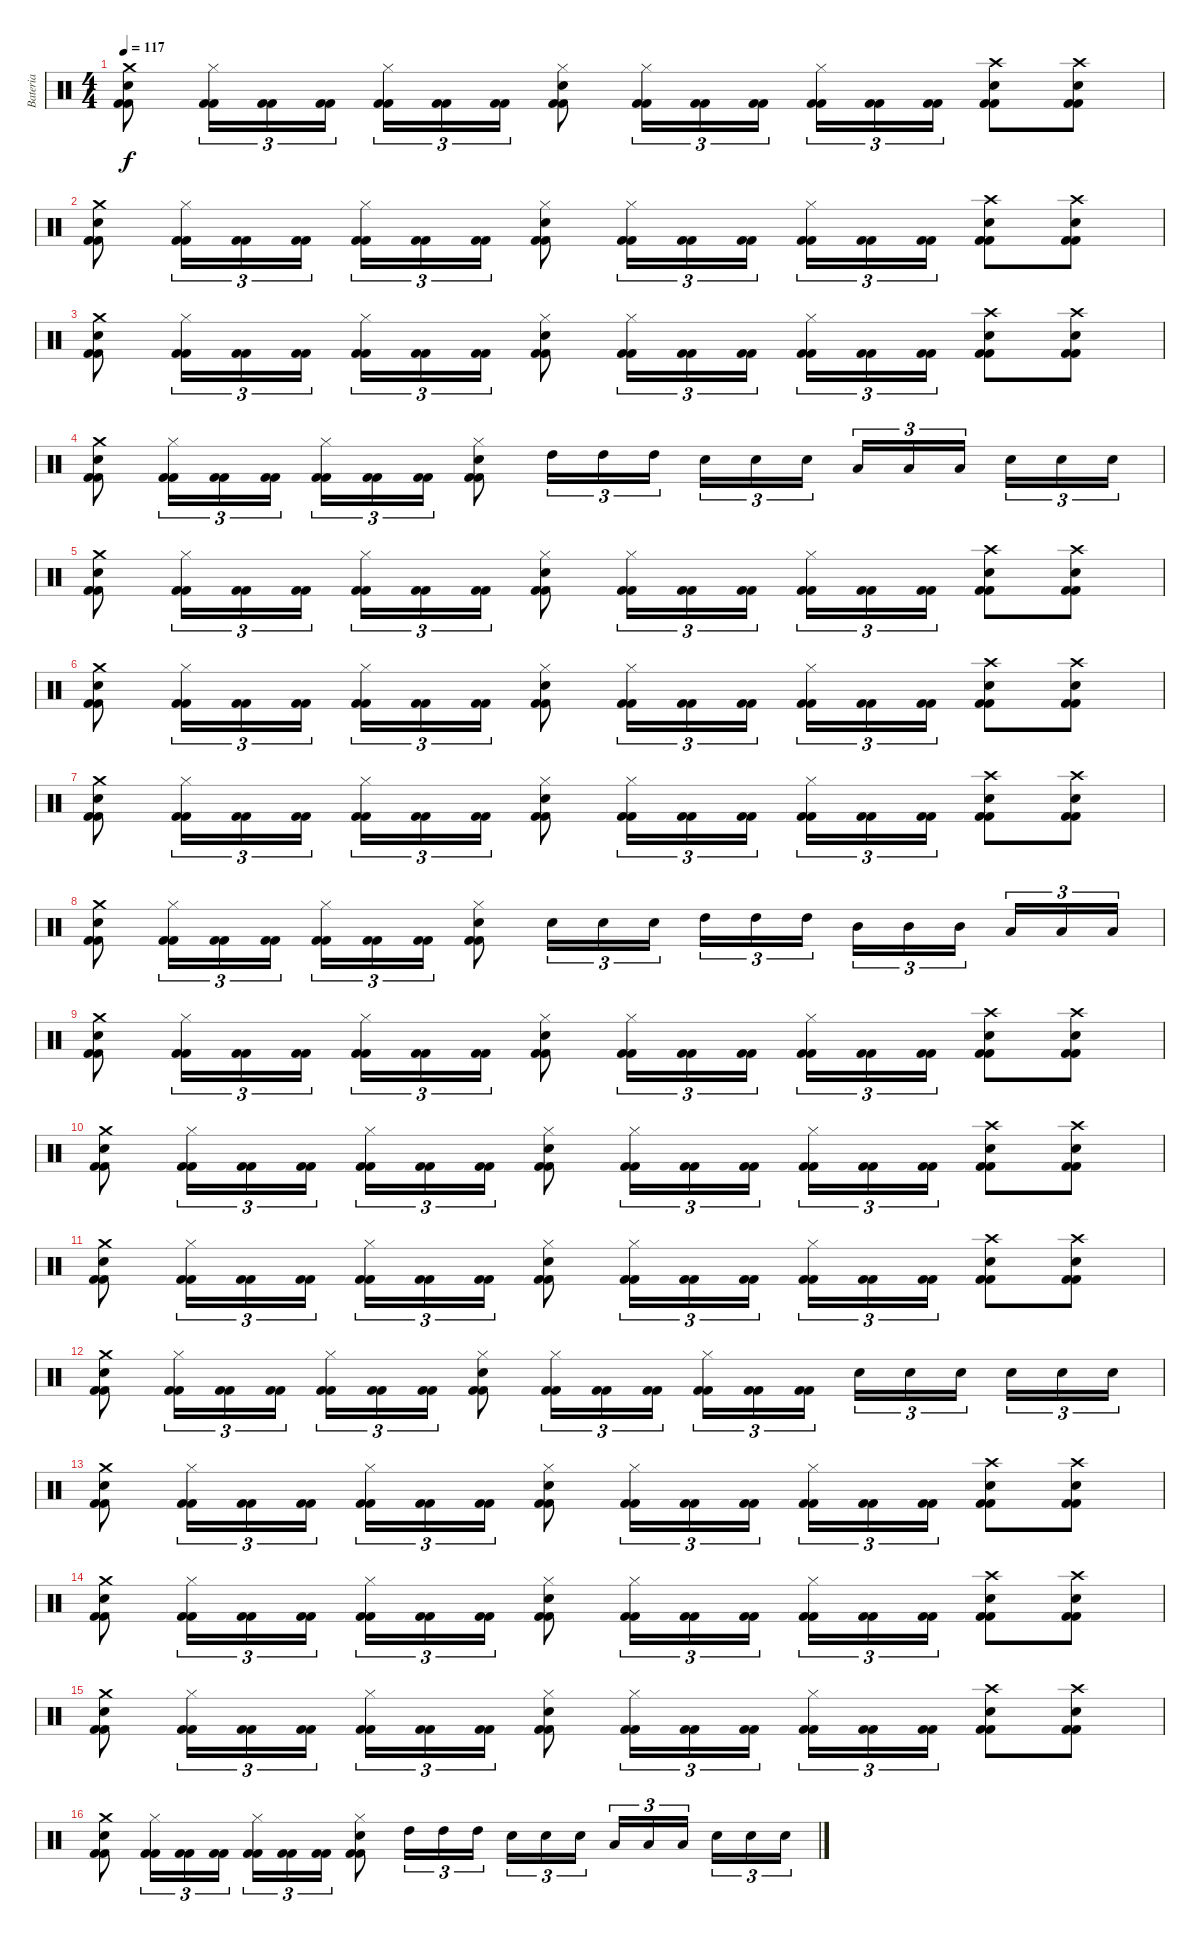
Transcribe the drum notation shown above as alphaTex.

\track ("Bateria" "Bateria") {instrument percussion}
\staff {score}
\articulation defaults
\ts (4 4)
\tempo 117
\clef neutral
\ks c
("Kick (hit) 2" "Kick (hit) 2" "Snare (hit) 2" "Crash medium (hit)").8{dy f} ("Kick (hit) 2" "Kick (hit) 2" "Hi-Hat (closed)").16{tu (3 2)} ("Kick (hit) 2" "Kick (hit) 2").16{tu (3 2)} ("Kick (hit) 2" "Kick (hit) 2").16{tu (3 2)} ("Kick (hit) 2" "Kick (hit) 2" "Hi-Hat (closed)").16{tu (3 2)} ("Kick (hit) 2" "Kick (hit) 2").16{tu (3 2)} ("Kick (hit) 2" "Kick (hit) 2").16{tu (3 2)} ("Kick (hit) 2" "Kick (hit) 2" "Snare (hit) 2" "Hi-Hat (closed)").8 ("Kick (hit) 2" "Kick (hit) 2" "Hi-Hat (closed)").16{tu (3 2)} ("Kick (hit) 2" "Kick (hit) 2").16{tu (3 2)} ("Kick (hit) 2" "Kick (hit) 2").16{tu (3 2)} ("Kick (hit) 2" "Kick (hit) 2" "Hi-Hat (closed)").16{tu (3 2)} ("Kick (hit) 2" "Kick (hit) 2").16{tu (3 2)} ("Kick (hit) 2" "Kick (hit) 2").16{tu (3 2)} ("Kick (hit) 2" "Kick (hit) 2" "Snare (hit) 2" "Crash high (hit)").8 ("Kick (hit) 2" "Kick (hit) 2" "Snare (hit) 2" "Crash high (hit)").8 |
("Kick (hit) 2" "Kick (hit) 2" "Snare (hit) 2" "Crash medium (hit)").8 ("Kick (hit) 2" "Kick (hit) 2" "Hi-Hat (closed)").16{tu (3 2)} ("Kick (hit) 2" "Kick (hit) 2").16{tu (3 2)} ("Kick (hit) 2" "Kick (hit) 2").16{tu (3 2)} ("Kick (hit) 2" "Kick (hit) 2" "Hi-Hat (closed)").16{tu (3 2)} ("Kick (hit) 2" "Kick (hit) 2").16{tu (3 2)} ("Kick (hit) 2" "Kick (hit) 2").16{tu (3 2)} ("Kick (hit) 2" "Kick (hit) 2" "Snare (hit) 2" "Hi-Hat (closed)").8 ("Kick (hit) 2" "Kick (hit) 2" "Hi-Hat (closed)").16{tu (3 2)} ("Kick (hit) 2" "Kick (hit) 2").16{tu (3 2)} ("Kick (hit) 2" "Kick (hit) 2").16{tu (3 2)} ("Kick (hit) 2" "Kick (hit) 2" "Hi-Hat (closed)").16{tu (3 2)} ("Kick (hit) 2" "Kick (hit) 2").16{tu (3 2)} ("Kick (hit) 2" "Kick (hit) 2").16{tu (3 2)} ("Kick (hit) 2" "Kick (hit) 2" "Snare (hit) 2" "Crash high (hit)").8 ("Kick (hit) 2" "Kick (hit) 2" "Snare (hit) 2" "Crash high (hit)").8 |
("Kick (hit) 2" "Kick (hit) 2" "Snare (hit) 2" "Crash medium (hit)").8 ("Kick (hit) 2" "Kick (hit) 2" "Hi-Hat (closed)").16{tu (3 2)} ("Kick (hit) 2" "Kick (hit) 2").16{tu (3 2)} ("Kick (hit) 2" "Kick (hit) 2").16{tu (3 2)} ("Kick (hit) 2" "Kick (hit) 2" "Hi-Hat (closed)").16{tu (3 2)} ("Kick (hit) 2" "Kick (hit) 2").16{tu (3 2)} ("Kick (hit) 2" "Kick (hit) 2").16{tu (3 2)} ("Kick (hit) 2" "Kick (hit) 2" "Snare (hit) 2" "Hi-Hat (closed)").8 ("Kick (hit) 2" "Kick (hit) 2" "Hi-Hat (closed)").16{tu (3 2)} ("Kick (hit) 2" "Kick (hit) 2").16{tu (3 2)} ("Kick (hit) 2" "Kick (hit) 2").16{tu (3 2)} ("Kick (hit) 2" "Kick (hit) 2" "Hi-Hat (closed)").16{tu (3 2)} ("Kick (hit) 2" "Kick (hit) 2").16{tu (3 2)} ("Kick (hit) 2" "Kick (hit) 2").16{tu (3 2)} ("Kick (hit) 2" "Kick (hit) 2" "Snare (hit) 2" "Crash high (hit)").8 ("Kick (hit) 2" "Kick (hit) 2" "Snare (hit) 2" "Crash high (hit)").8 |
("Kick (hit) 2" "Kick (hit) 2" "Snare (hit) 2" "Crash medium (hit)").8 ("Kick (hit) 2" "Kick (hit) 2" "Hi-Hat (closed)").16{tu (3 2)} ("Kick (hit) 2" "Kick (hit) 2").16{tu (3 2)} ("Kick (hit) 2" "Kick (hit) 2").16{tu (3 2)} ("Kick (hit) 2" "Kick (hit) 2" "Hi-Hat (closed)").16{tu (3 2)} ("Kick (hit) 2" "Kick (hit) 2").16{tu (3 2)} ("Kick (hit) 2" "Kick (hit) 2").16{tu (3 2)} ("Kick (hit) 2" "Kick (hit) 2" "Snare (hit) 2" "Hi-Hat (closed)").8 "High Tom (hit)".16{tu (3 2)} "High Tom (hit)".16{tu (3 2)} "High Tom (hit)".16{tu (3 2)} "Snare (hit) 2".16{tu (3 2)} "Snare (hit) 2".16{tu (3 2)} "Snare (hit) 2".16{tu (3 2)} "Low Tom (hit)".16{tu (3 2)} "Low Tom (hit)".16{tu (3 2)} "Low Tom (hit)".16{tu (3 2)} "Snare (hit) 2".16{tu (3 2)} "Snare (hit) 2".16{tu (3 2)} "Snare (hit) 2".16{tu (3 2)} |
("Kick (hit) 2" "Kick (hit) 2" "Snare (hit) 2" "Crash medium (hit)").8 ("Kick (hit) 2" "Kick (hit) 2" "Hi-Hat (closed)").16{tu (3 2)} ("Kick (hit) 2" "Kick (hit) 2").16{tu (3 2)} ("Kick (hit) 2" "Kick (hit) 2").16{tu (3 2)} ("Kick (hit) 2" "Kick (hit) 2" "Hi-Hat (closed)").16{tu (3 2)} ("Kick (hit) 2" "Kick (hit) 2").16{tu (3 2)} ("Kick (hit) 2" "Kick (hit) 2").16{tu (3 2)} ("Kick (hit) 2" "Kick (hit) 2" "Snare (hit) 2" "Hi-Hat (closed)").8 ("Kick (hit) 2" "Kick (hit) 2" "Hi-Hat (closed)").16{tu (3 2)} ("Kick (hit) 2" "Kick (hit) 2").16{tu (3 2)} ("Kick (hit) 2" "Kick (hit) 2").16{tu (3 2)} ("Kick (hit) 2" "Kick (hit) 2" "Hi-Hat (closed)").16{tu (3 2)} ("Kick (hit) 2" "Kick (hit) 2").16{tu (3 2)} ("Kick (hit) 2" "Kick (hit) 2").16{tu (3 2)} ("Kick (hit) 2" "Kick (hit) 2" "Snare (hit) 2" "Crash high (hit)").8 ("Kick (hit) 2" "Kick (hit) 2" "Snare (hit) 2" "Crash high (hit)").8 |
("Kick (hit) 2" "Kick (hit) 2" "Snare (hit) 2" "Crash medium (hit)").8 ("Kick (hit) 2" "Kick (hit) 2" "Hi-Hat (closed)").16{tu (3 2)} ("Kick (hit) 2" "Kick (hit) 2").16{tu (3 2)} ("Kick (hit) 2" "Kick (hit) 2").16{tu (3 2)} ("Kick (hit) 2" "Kick (hit) 2" "Hi-Hat (closed)").16{tu (3 2)} ("Kick (hit) 2" "Kick (hit) 2").16{tu (3 2)} ("Kick (hit) 2" "Kick (hit) 2").16{tu (3 2)} ("Kick (hit) 2" "Kick (hit) 2" "Snare (hit) 2" "Hi-Hat (closed)").8 ("Kick (hit) 2" "Kick (hit) 2" "Hi-Hat (closed)").16{tu (3 2)} ("Kick (hit) 2" "Kick (hit) 2").16{tu (3 2)} ("Kick (hit) 2" "Kick (hit) 2").16{tu (3 2)} ("Kick (hit) 2" "Kick (hit) 2" "Hi-Hat (closed)").16{tu (3 2)} ("Kick (hit) 2" "Kick (hit) 2").16{tu (3 2)} ("Kick (hit) 2" "Kick (hit) 2").16{tu (3 2)} ("Kick (hit) 2" "Kick (hit) 2" "Snare (hit) 2" "Crash high (hit)").8 ("Kick (hit) 2" "Kick (hit) 2" "Snare (hit) 2" "Crash high (hit)").8 |
("Kick (hit) 2" "Kick (hit) 2" "Snare (hit) 2" "Crash medium (hit)").8 ("Kick (hit) 2" "Kick (hit) 2" "Hi-Hat (closed)").16{tu (3 2)} ("Kick (hit) 2" "Kick (hit) 2").16{tu (3 2)} ("Kick (hit) 2" "Kick (hit) 2").16{tu (3 2)} ("Kick (hit) 2" "Kick (hit) 2" "Hi-Hat (closed)").16{tu (3 2)} ("Kick (hit) 2" "Kick (hit) 2").16{tu (3 2)} ("Kick (hit) 2" "Kick (hit) 2").16{tu (3 2)} ("Kick (hit) 2" "Kick (hit) 2" "Snare (hit) 2" "Hi-Hat (closed)").8 ("Kick (hit) 2" "Kick (hit) 2" "Hi-Hat (closed)").16{tu (3 2)} ("Kick (hit) 2" "Kick (hit) 2").16{tu (3 2)} ("Kick (hit) 2" "Kick (hit) 2").16{tu (3 2)} ("Kick (hit) 2" "Kick (hit) 2" "Hi-Hat (closed)").16{tu (3 2)} ("Kick (hit) 2" "Kick (hit) 2").16{tu (3 2)} ("Kick (hit) 2" "Kick (hit) 2").16{tu (3 2)} ("Kick (hit) 2" "Kick (hit) 2" "Snare (hit) 2" "Crash high (hit)").8 ("Kick (hit) 2" "Kick (hit) 2" "Snare (hit) 2" "Crash high (hit)").8 |
("Kick (hit) 2" "Kick (hit) 2" "Snare (hit) 2" "Crash medium (hit)").8 ("Kick (hit) 2" "Kick (hit) 2" "Hi-Hat (closed)").16{tu (3 2)} ("Kick (hit) 2" "Kick (hit) 2").16{tu (3 2)} ("Kick (hit) 2" "Kick (hit) 2").16{tu (3 2)} ("Kick (hit) 2" "Kick (hit) 2" "Hi-Hat (closed)").16{tu (3 2)} ("Kick (hit) 2" "Kick (hit) 2").16{tu (3 2)} ("Kick (hit) 2" "Kick (hit) 2").16{tu (3 2)} ("Kick (hit) 2" "Kick (hit) 2" "Snare (hit) 2" "Hi-Hat (closed)").8 "Snare (hit) 2".16{tu (3 2)} "Snare (hit) 2".16{tu (3 2)} "Snare (hit) 2".16{tu (3 2)} "High Tom (hit)".16{tu (3 2)} "High Tom (hit)".16{tu (3 2)} "High Tom (hit)".16{tu (3 2)} "Mid Tom (hit)".16{tu (3 2)} "Mid Tom (hit)".16{tu (3 2)} "Mid Tom (hit)".16{tu (3 2)} "Low Tom (hit)".16{tu (3 2)} "Low Tom (hit)".16{tu (3 2)} "Low Tom (hit)".16{tu (3 2)} |
("Kick (hit) 2" "Kick (hit) 2" "Snare (hit) 2" "Crash medium (hit)").8 ("Kick (hit) 2" "Kick (hit) 2" "Hi-Hat (closed)").16{tu (3 2)} ("Kick (hit) 2" "Kick (hit) 2").16{tu (3 2)} ("Kick (hit) 2" "Kick (hit) 2").16{tu (3 2)} ("Kick (hit) 2" "Kick (hit) 2" "Hi-Hat (closed)").16{tu (3 2)} ("Kick (hit) 2" "Kick (hit) 2").16{tu (3 2)} ("Kick (hit) 2" "Kick (hit) 2").16{tu (3 2)} ("Kick (hit) 2" "Kick (hit) 2" "Snare (hit) 2" "Hi-Hat (closed)").8 ("Kick (hit) 2" "Kick (hit) 2" "Hi-Hat (closed)").16{tu (3 2)} ("Kick (hit) 2" "Kick (hit) 2").16{tu (3 2)} ("Kick (hit) 2" "Kick (hit) 2").16{tu (3 2)} ("Kick (hit) 2" "Kick (hit) 2" "Hi-Hat (closed)").16{tu (3 2)} ("Kick (hit) 2" "Kick (hit) 2").16{tu (3 2)} ("Kick (hit) 2" "Kick (hit) 2").16{tu (3 2)} ("Kick (hit) 2" "Kick (hit) 2" "Snare (hit) 2" "Crash high (hit)").8 ("Kick (hit) 2" "Kick (hit) 2" "Snare (hit) 2" "Crash high (hit)").8 |
("Kick (hit) 2" "Kick (hit) 2" "Snare (hit) 2" "Crash medium (hit)").8 ("Kick (hit) 2" "Kick (hit) 2" "Hi-Hat (closed)").16{tu (3 2)} ("Kick (hit) 2" "Kick (hit) 2").16{tu (3 2)} ("Kick (hit) 2" "Kick (hit) 2").16{tu (3 2)} ("Kick (hit) 2" "Kick (hit) 2" "Hi-Hat (closed)").16{tu (3 2)} ("Kick (hit) 2" "Kick (hit) 2").16{tu (3 2)} ("Kick (hit) 2" "Kick (hit) 2").16{tu (3 2)} ("Kick (hit) 2" "Kick (hit) 2" "Snare (hit) 2" "Hi-Hat (closed)").8 ("Kick (hit) 2" "Kick (hit) 2" "Hi-Hat (closed)").16{tu (3 2)} ("Kick (hit) 2" "Kick (hit) 2").16{tu (3 2)} ("Kick (hit) 2" "Kick (hit) 2").16{tu (3 2)} ("Kick (hit) 2" "Kick (hit) 2" "Hi-Hat (closed)").16{tu (3 2)} ("Kick (hit) 2" "Kick (hit) 2").16{tu (3 2)} ("Kick (hit) 2" "Kick (hit) 2").16{tu (3 2)} ("Kick (hit) 2" "Kick (hit) 2" "Snare (hit) 2" "Crash high (hit)").8 ("Kick (hit) 2" "Kick (hit) 2" "Snare (hit) 2" "Crash high (hit)").8 |
("Kick (hit) 2" "Kick (hit) 2" "Snare (hit) 2" "Crash medium (hit)").8 ("Kick (hit) 2" "Kick (hit) 2" "Hi-Hat (closed)").16{tu (3 2)} ("Kick (hit) 2" "Kick (hit) 2").16{tu (3 2)} ("Kick (hit) 2" "Kick (hit) 2").16{tu (3 2)} ("Kick (hit) 2" "Kick (hit) 2" "Hi-Hat (closed)").16{tu (3 2)} ("Kick (hit) 2" "Kick (hit) 2").16{tu (3 2)} ("Kick (hit) 2" "Kick (hit) 2").16{tu (3 2)} ("Kick (hit) 2" "Kick (hit) 2" "Snare (hit) 2" "Hi-Hat (closed)").8 ("Kick (hit) 2" "Kick (hit) 2" "Hi-Hat (closed)").16{tu (3 2)} ("Kick (hit) 2" "Kick (hit) 2").16{tu (3 2)} ("Kick (hit) 2" "Kick (hit) 2").16{tu (3 2)} ("Kick (hit) 2" "Kick (hit) 2" "Hi-Hat (closed)").16{tu (3 2)} ("Kick (hit) 2" "Kick (hit) 2").16{tu (3 2)} ("Kick (hit) 2" "Kick (hit) 2").16{tu (3 2)} ("Kick (hit) 2" "Kick (hit) 2" "Snare (hit) 2" "Crash high (hit)").8 ("Kick (hit) 2" "Kick (hit) 2" "Snare (hit) 2" "Crash high (hit)").8 |
("Kick (hit) 2" "Kick (hit) 2" "Snare (hit) 2" "Crash medium (hit)").8 ("Kick (hit) 2" "Kick (hit) 2" "Hi-Hat (closed)").16{tu (3 2)} ("Kick (hit) 2" "Kick (hit) 2").16{tu (3 2)} ("Kick (hit) 2" "Kick (hit) 2").16{tu (3 2)} ("Kick (hit) 2" "Kick (hit) 2" "Hi-Hat (closed)").16{tu (3 2)} ("Kick (hit) 2" "Kick (hit) 2").16{tu (3 2)} ("Kick (hit) 2" "Kick (hit) 2").16{tu (3 2)} ("Kick (hit) 2" "Kick (hit) 2" "Snare (hit) 2" "Hi-Hat (closed)").8 ("Kick (hit) 2" "Kick (hit) 2" "Hi-Hat (closed)").16{tu (3 2)} ("Kick (hit) 2" "Kick (hit) 2").16{tu (3 2)} ("Kick (hit) 2" "Kick (hit) 2").16{tu (3 2)} ("Kick (hit) 2" "Kick (hit) 2" "Hi-Hat (closed)").16{tu (3 2)} ("Kick (hit) 2" "Kick (hit) 2").16{tu (3 2)} ("Kick (hit) 2" "Kick (hit) 2").16{tu (3 2)} "Snare (hit) 2".16{tu (3 2)} "Snare (hit) 2".16{tu (3 2)} "Snare (hit) 2".16{tu (3 2)} "Snare (hit) 2".16{tu (3 2)} "Snare (hit) 2".16{tu (3 2)} "Snare (hit) 2".16{tu (3 2)} |
("Kick (hit) 2" "Kick (hit) 2" "Snare (hit) 2" "Crash medium (hit)").8 ("Kick (hit) 2" "Kick (hit) 2" "Hi-Hat (closed)").16{tu (3 2)} ("Kick (hit) 2" "Kick (hit) 2").16{tu (3 2)} ("Kick (hit) 2" "Kick (hit) 2").16{tu (3 2)} ("Kick (hit) 2" "Kick (hit) 2" "Hi-Hat (closed)").16{tu (3 2)} ("Kick (hit) 2" "Kick (hit) 2").16{tu (3 2)} ("Kick (hit) 2" "Kick (hit) 2").16{tu (3 2)} ("Kick (hit) 2" "Kick (hit) 2" "Snare (hit) 2" "Hi-Hat (closed)").8 ("Kick (hit) 2" "Kick (hit) 2" "Hi-Hat (closed)").16{tu (3 2)} ("Kick (hit) 2" "Kick (hit) 2").16{tu (3 2)} ("Kick (hit) 2" "Kick (hit) 2").16{tu (3 2)} ("Kick (hit) 2" "Kick (hit) 2" "Hi-Hat (closed)").16{tu (3 2)} ("Kick (hit) 2" "Kick (hit) 2").16{tu (3 2)} ("Kick (hit) 2" "Kick (hit) 2").16{tu (3 2)} ("Kick (hit) 2" "Kick (hit) 2" "Snare (hit) 2" "Crash high (hit)").8 ("Kick (hit) 2" "Kick (hit) 2" "Snare (hit) 2" "Crash high (hit)").8 |
("Kick (hit) 2" "Kick (hit) 2" "Snare (hit) 2" "Crash medium (hit)").8 ("Kick (hit) 2" "Kick (hit) 2" "Hi-Hat (closed)").16{tu (3 2)} ("Kick (hit) 2" "Kick (hit) 2").16{tu (3 2)} ("Kick (hit) 2" "Kick (hit) 2").16{tu (3 2)} ("Kick (hit) 2" "Kick (hit) 2" "Hi-Hat (closed)").16{tu (3 2)} ("Kick (hit) 2" "Kick (hit) 2").16{tu (3 2)} ("Kick (hit) 2" "Kick (hit) 2").16{tu (3 2)} ("Kick (hit) 2" "Kick (hit) 2" "Snare (hit) 2" "Hi-Hat (closed)").8 ("Kick (hit) 2" "Kick (hit) 2" "Hi-Hat (closed)").16{tu (3 2)} ("Kick (hit) 2" "Kick (hit) 2").16{tu (3 2)} ("Kick (hit) 2" "Kick (hit) 2").16{tu (3 2)} ("Kick (hit) 2" "Kick (hit) 2" "Hi-Hat (closed)").16{tu (3 2)} ("Kick (hit) 2" "Kick (hit) 2").16{tu (3 2)} ("Kick (hit) 2" "Kick (hit) 2").16{tu (3 2)} ("Kick (hit) 2" "Kick (hit) 2" "Snare (hit) 2" "Crash high (hit)").8 ("Kick (hit) 2" "Kick (hit) 2" "Snare (hit) 2" "Crash high (hit)").8 |
("Kick (hit) 2" "Kick (hit) 2" "Snare (hit) 2" "Crash medium (hit)").8 ("Kick (hit) 2" "Kick (hit) 2" "Hi-Hat (closed)").16{tu (3 2)} ("Kick (hit) 2" "Kick (hit) 2").16{tu (3 2)} ("Kick (hit) 2" "Kick (hit) 2").16{tu (3 2)} ("Kick (hit) 2" "Kick (hit) 2" "Hi-Hat (closed)").16{tu (3 2)} ("Kick (hit) 2" "Kick (hit) 2").16{tu (3 2)} ("Kick (hit) 2" "Kick (hit) 2").16{tu (3 2)} ("Kick (hit) 2" "Kick (hit) 2" "Snare (hit) 2" "Hi-Hat (closed)").8 ("Kick (hit) 2" "Kick (hit) 2" "Hi-Hat (closed)").16{tu (3 2)} ("Kick (hit) 2" "Kick (hit) 2").16{tu (3 2)} ("Kick (hit) 2" "Kick (hit) 2").16{tu (3 2)} ("Kick (hit) 2" "Kick (hit) 2" "Hi-Hat (closed)").16{tu (3 2)} ("Kick (hit) 2" "Kick (hit) 2").16{tu (3 2)} ("Kick (hit) 2" "Kick (hit) 2").16{tu (3 2)} ("Kick (hit) 2" "Kick (hit) 2" "Snare (hit) 2" "Crash high (hit)").8 ("Kick (hit) 2" "Kick (hit) 2" "Snare (hit) 2" "Crash high (hit)").8 |
("Kick (hit) 2" "Kick (hit) 2" "Snare (hit) 2" "Crash medium (hit)").8 ("Kick (hit) 2" "Kick (hit) 2" "Hi-Hat (closed)").16{tu (3 2)} ("Kick (hit) 2" "Kick (hit) 2").16{tu (3 2)} ("Kick (hit) 2" "Kick (hit) 2").16{tu (3 2)} ("Kick (hit) 2" "Kick (hit) 2" "Hi-Hat (closed)").16{tu (3 2)} ("Kick (hit) 2" "Kick (hit) 2").16{tu (3 2)} ("Kick (hit) 2" "Kick (hit) 2").16{tu (3 2)} ("Kick (hit) 2" "Kick (hit) 2" "Snare (hit) 2" "Hi-Hat (closed)").8 "High Tom (hit)".16{tu (3 2)} "High Tom (hit)".16{tu (3 2)} "High Tom (hit)".16{tu (3 2)} "Snare (hit) 2".16{tu (3 2)} "Snare (hit) 2".16{tu (3 2)} "Snare (hit) 2".16{tu (3 2)} "Low Tom (hit)".16{tu (3 2)} "Low Tom (hit)".16{tu (3 2)} "Low Tom (hit)".16{tu (3 2)} "Snare (hit) 2".16{tu (3 2)} "Snare (hit) 2".16{tu (3 2)} "Snare (hit) 2".16{tu (3 2)}
